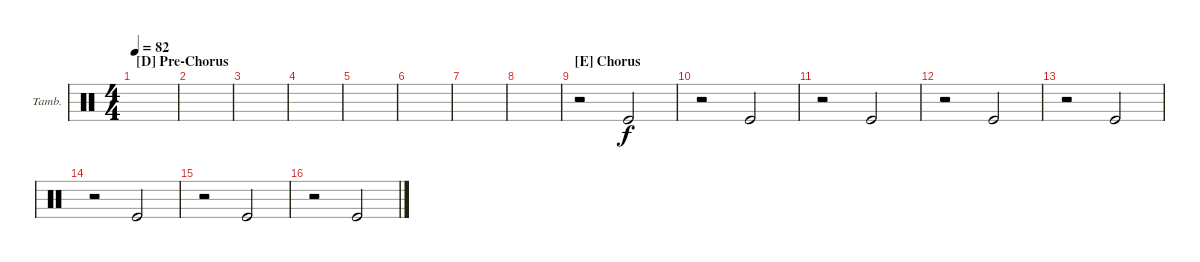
\defaultSystemsLayout 4
\bracketExtendMode groupsimilarinstruments
\firstSystemTrackNameOrientation horizontal
\otherSystemsTrackNameOrientation horizontal
\track ("Tambourine" "Tamb.") {instrument percussion}
\staff {score}
\articulation defaults
\ts (4 4)
\section ("D" "Pre-Chorus")
\tempo 82
\clef neutral
\ks c
|
|
|
|
|
|
|
|
\section ("E" "Chorus")
r.2 "Kick (hit)".2 |
r.2 "Kick (hit)".2 |
r.2 "Kick (hit)".2 |
r.2 "Kick (hit)".2 |
r.2 "Kick (hit)".2 |
r.2 "Kick (hit)".2 |
r.2 "Kick (hit)".2 |
r.2 "Kick (hit)".2
